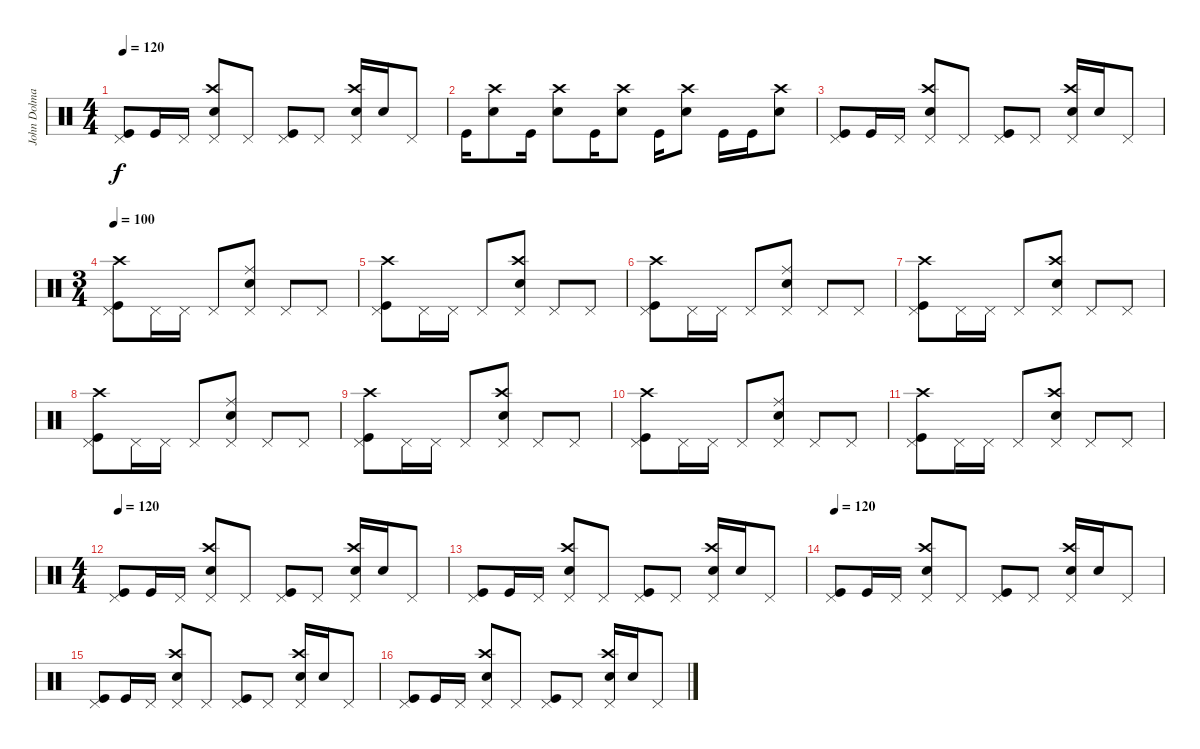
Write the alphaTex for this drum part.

\track ("John Dolmayan" "John Dolma") {instrument percussion}
\staff {score}
\articulation defaults
\ts (4 4)
\tempo 120
\clef neutral
\ks c
("Pedal Hi-Hat (hit)" "Kick (hit)").8{dy f} "Kick (hit)".16 "Pedal Hi-Hat (hit)".16 ("Crash high (hit)" "Pedal Hi-Hat (hit)" "Electric Snare (hit)").8 "Pedal Hi-Hat (hit)".8 ("Pedal Hi-Hat (hit)" "Kick (hit)").8 "Pedal Hi-Hat (hit)".8 ("Crash high (hit)" "Pedal Hi-Hat (hit)" "Electric Snare (hit)").16 "Electric Snare (hit)".16 "Pedal Hi-Hat (hit)".8 |
"Kick (hit)".16 ("Crash high (hit)" "Electric Snare (hit)").8 "Kick (hit)".16 ("Crash high (hit)" "Electric Snare (hit)").8 "Kick (hit)".16 ("Crash high (hit)" "Electric Snare (hit)").8 "Kick (hit)".16 ("Crash high (hit)" "Electric Snare (hit)").8 "Kick (hit)".16 "Kick (hit)".16 ("Crash high (hit)" "Electric Snare (hit)").8 |
("Pedal Hi-Hat (hit)" "Kick (hit)").8 "Kick (hit)".16 "Pedal Hi-Hat (hit)".16 ("Crash high (hit)" "Pedal Hi-Hat (hit)" "Electric Snare (hit)").8 "Pedal Hi-Hat (hit)".8 ("Pedal Hi-Hat (hit)" "Kick (hit)").8 "Pedal Hi-Hat (hit)".8 ("Crash high (hit)" "Pedal Hi-Hat (hit)" "Electric Snare (hit)").16 "Electric Snare (hit)".16 "Pedal Hi-Hat (hit)".8 |
\ts (3 4)
\tempo 100
("Pedal Hi-Hat (hit)" "Crash high (hit)" "Kick (hit)").8 "Pedal Hi-Hat (hit)".16 "Pedal Hi-Hat (hit)".16 "Pedal Hi-Hat (hit)".8 ("Pedal Hi-Hat (hit)" "Electric Snare (hit)" "Ride (middle)").8 "Pedal Hi-Hat (hit)".8 "Pedal Hi-Hat (hit)".8 |
("Pedal Hi-Hat (hit)" "Crash high (hit)" "Kick (hit)").8 "Pedal Hi-Hat (hit)".16 "Pedal Hi-Hat (hit)".16 "Pedal Hi-Hat (hit)".8 ("Pedal Hi-Hat (hit)" "Electric Snare (hit)" "Crash high (hit)").8 "Pedal Hi-Hat (hit)".8 "Pedal Hi-Hat (hit)".8 |
("Pedal Hi-Hat (hit)" "Crash high (hit)" "Kick (hit)").8 "Pedal Hi-Hat (hit)".16 "Pedal Hi-Hat (hit)".16 "Pedal Hi-Hat (hit)".8 ("Pedal Hi-Hat (hit)" "Electric Snare (hit)" "Ride (middle)").8 "Pedal Hi-Hat (hit)".8 "Pedal Hi-Hat (hit)".8 |
("Pedal Hi-Hat (hit)" "Crash high (hit)" "Kick (hit)").8 "Pedal Hi-Hat (hit)".16 "Pedal Hi-Hat (hit)".16 "Pedal Hi-Hat (hit)".8 ("Pedal Hi-Hat (hit)" "Electric Snare (hit)" "Crash high (hit)").8 "Pedal Hi-Hat (hit)".8 "Pedal Hi-Hat (hit)".8 |
("Pedal Hi-Hat (hit)" "Crash high (hit)" "Kick (hit)").8 "Pedal Hi-Hat (hit)".16 "Pedal Hi-Hat (hit)".16 "Pedal Hi-Hat (hit)".8 ("Pedal Hi-Hat (hit)" "Electric Snare (hit)" "Ride (middle)").8 "Pedal Hi-Hat (hit)".8 "Pedal Hi-Hat (hit)".8 |
("Pedal Hi-Hat (hit)" "Crash high (hit)" "Kick (hit)").8 "Pedal Hi-Hat (hit)".16 "Pedal Hi-Hat (hit)".16 "Pedal Hi-Hat (hit)".8 ("Pedal Hi-Hat (hit)" "Electric Snare (hit)" "Crash high (hit)").8 "Pedal Hi-Hat (hit)".8 "Pedal Hi-Hat (hit)".8 |
("Pedal Hi-Hat (hit)" "Crash high (hit)" "Kick (hit)").8 "Pedal Hi-Hat (hit)".16 "Pedal Hi-Hat (hit)".16 "Pedal Hi-Hat (hit)".8 ("Pedal Hi-Hat (hit)" "Electric Snare (hit)" "Ride (middle)").8 "Pedal Hi-Hat (hit)".8 "Pedal Hi-Hat (hit)".8 |
("Pedal Hi-Hat (hit)" "Crash high (hit)" "Kick (hit)").8 "Pedal Hi-Hat (hit)".16 "Pedal Hi-Hat (hit)".16 "Pedal Hi-Hat (hit)".8 ("Pedal Hi-Hat (hit)" "Electric Snare (hit)" "Crash high (hit)").8 "Pedal Hi-Hat (hit)".8 "Pedal Hi-Hat (hit)".8 |
\ts (4 4)
\tempo 120
("Pedal Hi-Hat (hit)" "Kick (hit)").8 "Kick (hit)".16 "Pedal Hi-Hat (hit)".16 ("Crash high (hit)" "Pedal Hi-Hat (hit)" "Electric Snare (hit)").8 "Pedal Hi-Hat (hit)".8 ("Pedal Hi-Hat (hit)" "Kick (hit)").8 "Pedal Hi-Hat (hit)".8 ("Crash high (hit)" "Pedal Hi-Hat (hit)" "Electric Snare (hit)").16 "Electric Snare (hit)".16 "Pedal Hi-Hat (hit)".8 |
("Pedal Hi-Hat (hit)" "Kick (hit)").8 "Kick (hit)".16 "Pedal Hi-Hat (hit)".16 ("Crash high (hit)" "Pedal Hi-Hat (hit)" "Electric Snare (hit)").8 "Pedal Hi-Hat (hit)".8 ("Pedal Hi-Hat (hit)" "Kick (hit)").8 "Pedal Hi-Hat (hit)".8 ("Crash high (hit)" "Pedal Hi-Hat (hit)" "Electric Snare (hit)").16 "Electric Snare (hit)".16 "Pedal Hi-Hat (hit)".8 |
\tempo 120
("Pedal Hi-Hat (hit)" "Kick (hit)").8 "Kick (hit)".16 "Pedal Hi-Hat (hit)".16 ("Crash high (hit)" "Pedal Hi-Hat (hit)" "Electric Snare (hit)").8 "Pedal Hi-Hat (hit)".8 ("Pedal Hi-Hat (hit)" "Kick (hit)").8 "Pedal Hi-Hat (hit)".8 ("Crash high (hit)" "Pedal Hi-Hat (hit)" "Electric Snare (hit)").16 "Electric Snare (hit)".16 "Pedal Hi-Hat (hit)".8 |
("Pedal Hi-Hat (hit)" "Kick (hit)").8 "Kick (hit)".16 "Pedal Hi-Hat (hit)".16 ("Crash high (hit)" "Pedal Hi-Hat (hit)" "Electric Snare (hit)").8 "Pedal Hi-Hat (hit)".8 ("Pedal Hi-Hat (hit)" "Kick (hit)").8 "Pedal Hi-Hat (hit)".8 ("Crash high (hit)" "Pedal Hi-Hat (hit)" "Electric Snare (hit)").16 "Electric Snare (hit)".16 "Pedal Hi-Hat (hit)".8 |
("Pedal Hi-Hat (hit)" "Kick (hit)").8 "Kick (hit)".16 "Pedal Hi-Hat (hit)".16 ("Crash high (hit)" "Pedal Hi-Hat (hit)" "Electric Snare (hit)").8 "Pedal Hi-Hat (hit)".8 ("Pedal Hi-Hat (hit)" "Kick (hit)").8 "Pedal Hi-Hat (hit)".8 ("Crash high (hit)" "Pedal Hi-Hat (hit)" "Electric Snare (hit)").16 "Electric Snare (hit)".16 "Pedal Hi-Hat (hit)".8
